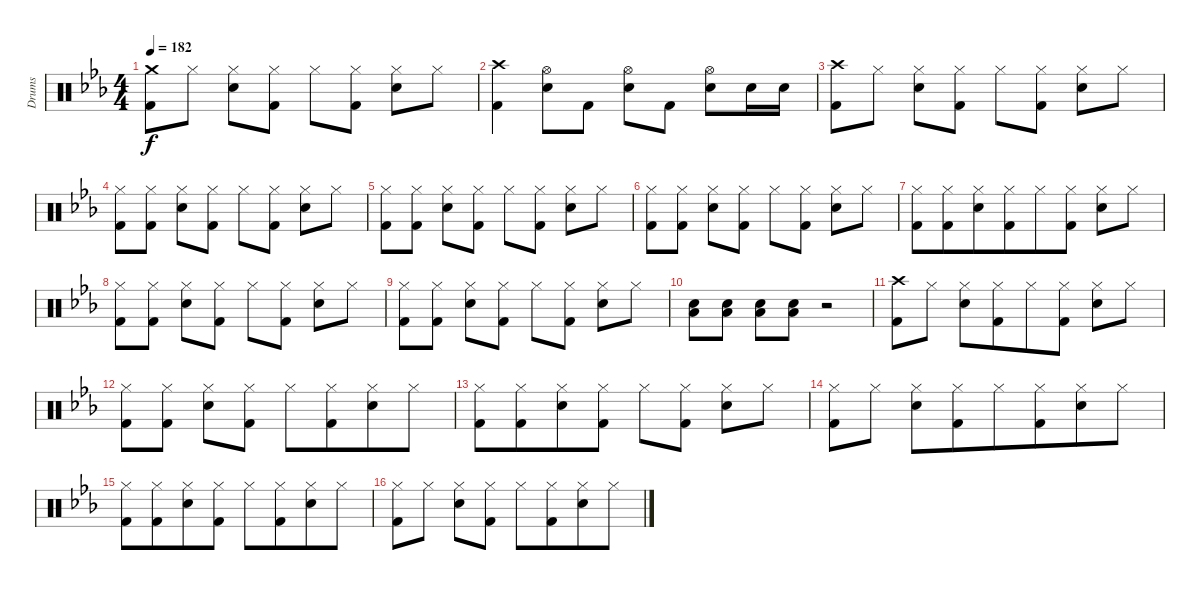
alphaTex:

\track ("Drums" "Drums") {instrument percussion}
\staff {score}
\articulation defaults
\ts (4 4)
\tempo 182
\clef neutral
\ks eb
("Crash medium (hit)" "Kick (hit) 2").8{dy f} "Hi-Hat (closed)".8 ("Hi-Hat (closed)" "Snare (hit) 2").8 ("Hi-Hat (closed)" "Kick (hit) 2").8 "Hi-Hat (closed)".8{beam merge} ("Hi-Hat (closed)" "Kick (hit) 2").8 ("Hi-Hat (closed)" "Snare (hit) 2").8 "Hi-Hat (closed)".8 |
("Crash high (hit)" "Kick (hit) 2").4{beam merge} ("Hi-Hat (open)" "Snare (hit) 2").8 "Kick (hit) 2".8 ("Hi-Hat (open)" "Snare (hit) 2").8 "Kick (hit) 2".8 ("Hi-Hat (open)" "Snare (hit) 2").8 "Snare (hit) 2".16 "Snare (hit) 2".16 |
("Crash high (hit)" "Kick (hit) 2").8 "Hi-Hat (closed)".8 ("Hi-Hat (closed)" "Snare (hit) 2").8 ("Hi-Hat (closed)" "Kick (hit) 2").8 "Hi-Hat (closed)".8 ("Hi-Hat (closed)" "Kick (hit) 2").8 ("Hi-Hat (closed)" "Snare (hit) 2").8 "Hi-Hat (closed)".8 |
("Hi-Hat (closed)" "Kick (hit) 2").8 ("Hi-Hat (closed)" "Kick (hit) 2").8 ("Hi-Hat (closed)" "Snare (hit) 2").8 ("Hi-Hat (closed)" "Kick (hit) 2").8 "Hi-Hat (closed)".8 ("Hi-Hat (closed)" "Kick (hit) 2").8 ("Hi-Hat (closed)" "Snare (hit) 2").8 "Hi-Hat (closed)".8 |
("Hi-Hat (closed)" "Kick (hit) 2").8 ("Hi-Hat (closed)" "Kick (hit) 2").8 ("Hi-Hat (closed)" "Snare (hit) 2").8 ("Hi-Hat (closed)" "Kick (hit) 2").8 "Hi-Hat (closed)".8 ("Hi-Hat (closed)" "Kick (hit) 2").8 ("Hi-Hat (closed)" "Snare (hit) 2").8 "Hi-Hat (closed)".8 |
("Hi-Hat (closed)" "Kick (hit) 2").8 ("Hi-Hat (closed)" "Kick (hit) 2").8 ("Hi-Hat (closed)" "Snare (hit) 2").8{beam merge} ("Hi-Hat (closed)" "Kick (hit) 2").8 "Hi-Hat (closed)".8{beam merge} ("Hi-Hat (closed)" "Kick (hit) 2").8 ("Hi-Hat (closed)" "Snare (hit) 2").8 "Hi-Hat (closed)".8 |
("Hi-Hat (closed)" "Kick (hit) 2").8 ("Hi-Hat (closed)" "Kick (hit) 2").8{beam merge} ("Hi-Hat (closed)" "Snare (hit) 2").8 ("Hi-Hat (closed)" "Kick (hit) 2").8{beam merge} "Hi-Hat (closed)".8{beam merge} ("Hi-Hat (closed)" "Kick (hit) 2").8 ("Hi-Hat (closed)" "Snare (hit) 2").8 "Hi-Hat (closed)".8 |
("Hi-Hat (closed)" "Kick (hit) 2").8 ("Hi-Hat (closed)" "Kick (hit) 2").8 ("Hi-Hat (closed)" "Snare (hit) 2").8 ("Hi-Hat (closed)" "Kick (hit) 2").8 "Hi-Hat (closed)".8 ("Hi-Hat (closed)" "Kick (hit) 2").8 ("Hi-Hat (closed)" "Snare (hit) 2").8 "Hi-Hat (closed)".8 |
("Hi-Hat (closed)" "Kick (hit) 2").8 ("Hi-Hat (closed)" "Kick (hit) 2").8 ("Hi-Hat (closed)" "Snare (hit) 2").8 ("Hi-Hat (closed)" "Kick (hit) 2").8 "Hi-Hat (closed)".8 ("Hi-Hat (closed)" "Kick (hit) 2").8 ("Hi-Hat (closed)" "Snare (hit) 2").8 "Hi-Hat (closed)".8 |
("Snare (hit) 2" "Low Tom (hit)").8 ("Snare (hit) 2" "Low Tom (hit)").8 ("Snare (hit) 2" "Low Tom (hit)").8 ("Snare (hit) 2" "Low Tom (hit)").8 r.2 |
("Crash high (hit)" "Kick (hit) 2").8 "Hi-Hat (closed)".8 ("Hi-Hat (closed)" "Snare (hit) 2").8 ("Hi-Hat (closed)" "Kick (hit) 2").8{beam merge} "Hi-Hat (closed)".8{beam merge} ("Hi-Hat (closed)" "Kick (hit) 2").8 ("Hi-Hat (closed)" "Snare (hit) 2").8{beam merge} "Hi-Hat (closed)".8 |
("Hi-Hat (closed)" "Kick (hit) 2").8 ("Hi-Hat (closed)" "Kick (hit) 2").8 ("Hi-Hat (closed)" "Snare (hit) 2").8{beam merge} ("Hi-Hat (closed)" "Kick (hit) 2").8 "Hi-Hat (closed)".8 ("Hi-Hat (closed)" "Kick (hit) 2").8{beam merge} ("Hi-Hat (closed)" "Snare (hit) 2").8 "Hi-Hat (closed)".8 |
("Hi-Hat (closed)" "Kick (hit) 2").8 ("Hi-Hat (closed)" "Kick (hit) 2").8{beam merge} ("Hi-Hat (closed)" "Snare (hit) 2").8 ("Hi-Hat (closed)" "Kick (hit) 2").8 "Hi-Hat (closed)".8 ("Hi-Hat (closed)" "Kick (hit) 2").8 ("Hi-Hat (closed)" "Snare (hit) 2").8 "Hi-Hat (closed)".8 |
("Hi-Hat (closed)" "Kick (hit) 2").8 "Hi-Hat (closed)".8 ("Hi-Hat (closed)" "Snare (hit) 2").8 ("Hi-Hat (closed)" "Kick (hit) 2").8{beam merge} "Hi-Hat (closed)".8 ("Hi-Hat (closed)" "Kick (hit) 2").8{beam merge} ("Hi-Hat (closed)" "Snare (hit) 2").8 "Hi-Hat (closed)".8 |
("Hi-Hat (closed)" "Kick (hit) 2").8 ("Hi-Hat (closed)" "Kick (hit) 2").8{beam merge} ("Hi-Hat (closed)" "Snare (hit) 2").8{beam merge} ("Hi-Hat (closed)" "Kick (hit) 2").8 "Hi-Hat (closed)".8{beam merge} ("Hi-Hat (closed)" "Kick (hit) 2").8{beam merge} ("Hi-Hat (closed)" "Snare (hit) 2").8{beam merge} "Hi-Hat (closed)".8 |
("Hi-Hat (closed)" "Kick (hit) 2").8 "Hi-Hat (closed)".8 ("Hi-Hat (closed)" "Snare (hit) 2").8 ("Hi-Hat (closed)" "Kick (hit) 2").8 "Hi-Hat (closed)".8 ("Hi-Hat (closed)" "Kick (hit) 2").8{beam merge} ("Hi-Hat (closed)" "Snare (hit) 2").8 "Hi-Hat (closed)".8
